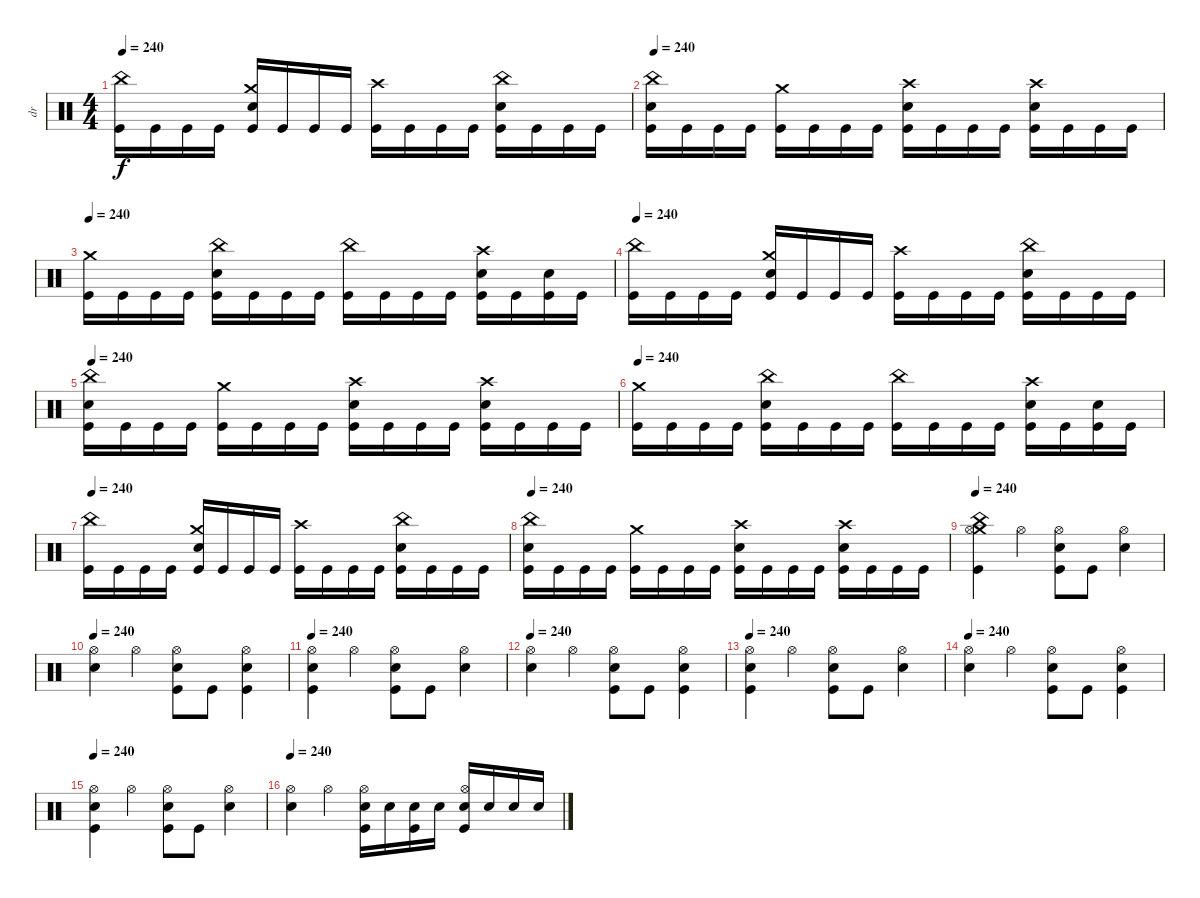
\track ("dr" "dr") {instrument percussion}
\staff {score}
\articulation defaults
\ts (4 4)
\tempo 240
\clef neutral
\ks c
("China (hit)" "Kick (hit)").16{dy f} "Kick (hit)".16 "Kick (hit)".16 "Kick (hit)".16 ("Crash medium (hit)" "Snare (hit) 2" "Kick (hit)").16 "Kick (hit)".16 "Kick (hit)".16 "Kick (hit)".16 ("Crash high (hit)" "Kick (hit)").16 "Kick (hit)".16 "Kick (hit)".16 "Kick (hit)".16 ("China (hit)" "Snare (hit) 2" "Kick (hit)").16 "Kick (hit)".16 "Kick (hit)".16 "Kick (hit)".16 |
\tempo 240
("China (hit)" "Snare (hit) 2" "Kick (hit)").16 "Kick (hit)".16 "Kick (hit)".16 "Kick (hit)".16 ("Crash medium (hit)" "Kick (hit)").16 "Kick (hit)".16 "Kick (hit)".16 "Kick (hit)".16 ("Crash high (hit)" "Snare (hit) 2" "Kick (hit)").16 "Kick (hit)".16 "Kick (hit)".16 "Kick (hit)".16 ("Crash high (hit)" "Snare (hit) 2" "Kick (hit)").16 "Kick (hit)".16 "Kick (hit)".16 "Kick (hit)".16 |
\tempo 240
("Crash medium (hit)" "Kick (hit)").16 "Kick (hit)".16 "Kick (hit)".16 "Kick (hit)".16 ("China (hit)" "Snare (hit) 2" "Kick (hit)").16 "Kick (hit)".16 "Kick (hit)".16 "Kick (hit)".16 ("China (hit)" "Kick (hit)").16 "Kick (hit)".16 "Kick (hit)".16 "Kick (hit)".16 ("Crash high (hit)" "Snare (hit) 2" "Kick (hit)").16 "Kick (hit)".16 ("Snare (hit) 2" "Kick (hit)").16 "Kick (hit)".16 |
\tempo 240
("China (hit)" "Kick (hit)").16 "Kick (hit)".16 "Kick (hit)".16 "Kick (hit)".16 ("Crash medium (hit)" "Snare (hit) 2" "Kick (hit)").16 "Kick (hit)".16 "Kick (hit)".16 "Kick (hit)".16 ("Crash high (hit)" "Kick (hit)").16 "Kick (hit)".16 "Kick (hit)".16 "Kick (hit)".16 ("China (hit)" "Snare (hit) 2" "Kick (hit)").16 "Kick (hit)".16 "Kick (hit)".16 "Kick (hit)".16 |
\tempo 240
("China (hit)" "Snare (hit) 2" "Kick (hit)").16 "Kick (hit)".16 "Kick (hit)".16 "Kick (hit)".16 ("Crash medium (hit)" "Kick (hit)").16 "Kick (hit)".16 "Kick (hit)".16 "Kick (hit)".16 ("Crash high (hit)" "Snare (hit) 2" "Kick (hit)").16 "Kick (hit)".16 "Kick (hit)".16 "Kick (hit)".16 ("Crash high (hit)" "Snare (hit) 2" "Kick (hit)").16 "Kick (hit)".16 "Kick (hit)".16 "Kick (hit)".16 |
\tempo 240
("Crash medium (hit)" "Kick (hit)").16 "Kick (hit)".16 "Kick (hit)".16 "Kick (hit)".16 ("China (hit)" "Snare (hit) 2" "Kick (hit)").16 "Kick (hit)".16 "Kick (hit)".16 "Kick (hit)".16 ("China (hit)" "Kick (hit)").16 "Kick (hit)".16 "Kick (hit)".16 "Kick (hit)".16 ("Crash high (hit)" "Snare (hit) 2" "Kick (hit)").16 "Kick (hit)".16 ("Snare (hit) 2" "Kick (hit)").16 "Kick (hit)".16 |
\tempo 240
("China (hit)" "Kick (hit)").16 "Kick (hit)".16 "Kick (hit)".16 "Kick (hit)".16 ("Crash medium (hit)" "Snare (hit) 2" "Kick (hit)").16 "Kick (hit)".16 "Kick (hit)".16 "Kick (hit)".16 ("Crash high (hit)" "Kick (hit)").16 "Kick (hit)".16 "Kick (hit)".16 "Kick (hit)".16 ("China (hit)" "Snare (hit) 2" "Kick (hit)").16 "Kick (hit)".16 "Kick (hit)".16 "Kick (hit)".16 |
\tempo 240
("China (hit)" "Snare (hit) 2" "Kick (hit)").16 "Kick (hit)".16 "Kick (hit)".16 "Kick (hit)".16 ("Crash medium (hit)" "Kick (hit)").16 "Kick (hit)".16 "Kick (hit)".16 "Kick (hit)".16 ("Crash high (hit)" "Snare (hit) 2" "Kick (hit)").16 "Kick (hit)".16 "Kick (hit)".16 "Kick (hit)".16 ("Crash high (hit)" "Snare (hit) 2" "Kick (hit)").16 "Kick (hit)".16 "Kick (hit)".16 "Kick (hit)".16 |
\tempo 240
("Crash medium (hit)" "China (hit)" "Hi-Hat (open)" "Kick (hit)").4 "Hi-Hat (open)".4 ("Snare (hit) 2" "Hi-Hat (open)" "Kick (hit)").8 "Kick (hit)".8 ("Snare (hit) 2" "Hi-Hat (open)").4 |
\tempo 240
("Snare (hit) 2" "Hi-Hat (open)").4 "Hi-Hat (open)".4 ("Snare (hit) 2" "Hi-Hat (open)" "Kick (hit)").8 "Kick (hit)".8 ("Snare (hit) 2" "Hi-Hat (open)" "Kick (hit)").4 |
\tempo 240
("Snare (hit) 2" "Hi-Hat (open)" "Kick (hit)").4 "Hi-Hat (open)".4 ("Snare (hit) 2" "Hi-Hat (open)" "Kick (hit)").8 "Kick (hit)".8 ("Snare (hit) 2" "Hi-Hat (open)").4 |
\tempo 240
("Snare (hit) 2" "Hi-Hat (open)").4 "Hi-Hat (open)".4 ("Snare (hit) 2" "Hi-Hat (open)" "Kick (hit)").8 "Kick (hit)".8 ("Snare (hit) 2" "Hi-Hat (open)" "Kick (hit)").4 |
\tempo 240
("Snare (hit) 2" "Hi-Hat (open)" "Kick (hit)").4 "Hi-Hat (open)".4 ("Snare (hit) 2" "Hi-Hat (open)" "Kick (hit)").8 "Kick (hit)".8 ("Snare (hit) 2" "Hi-Hat (open)").4 |
\tempo 240
("Snare (hit) 2" "Hi-Hat (open)").4 "Hi-Hat (open)".4 ("Snare (hit) 2" "Hi-Hat (open)" "Kick (hit)").8 "Kick (hit)".8 ("Snare (hit) 2" "Hi-Hat (open)" "Kick (hit)").4 |
\tempo 240
("Snare (hit) 2" "Hi-Hat (open)" "Kick (hit)").4 "Hi-Hat (open)".4 ("Snare (hit) 2" "Hi-Hat (open)" "Kick (hit)").8 "Kick (hit)".8 ("Snare (hit) 2" "Hi-Hat (open)").4 |
\tempo 240
("Snare (hit) 2" "Hi-Hat (open)").4 "Hi-Hat (open)".4 ("Snare (hit) 2" "Hi-Hat (open)" "Kick (hit)").16 "Snare (hit) 2".16 ("Snare (hit) 2" "Kick (hit)").16 "Snare (hit) 2".16 ("Electric Snare (hit)" "Hi-Hat (open)" "Kick (hit)").16 "Electric Snare (hit)".16 "Electric Snare (hit)".16 "Electric Snare (hit)".16
